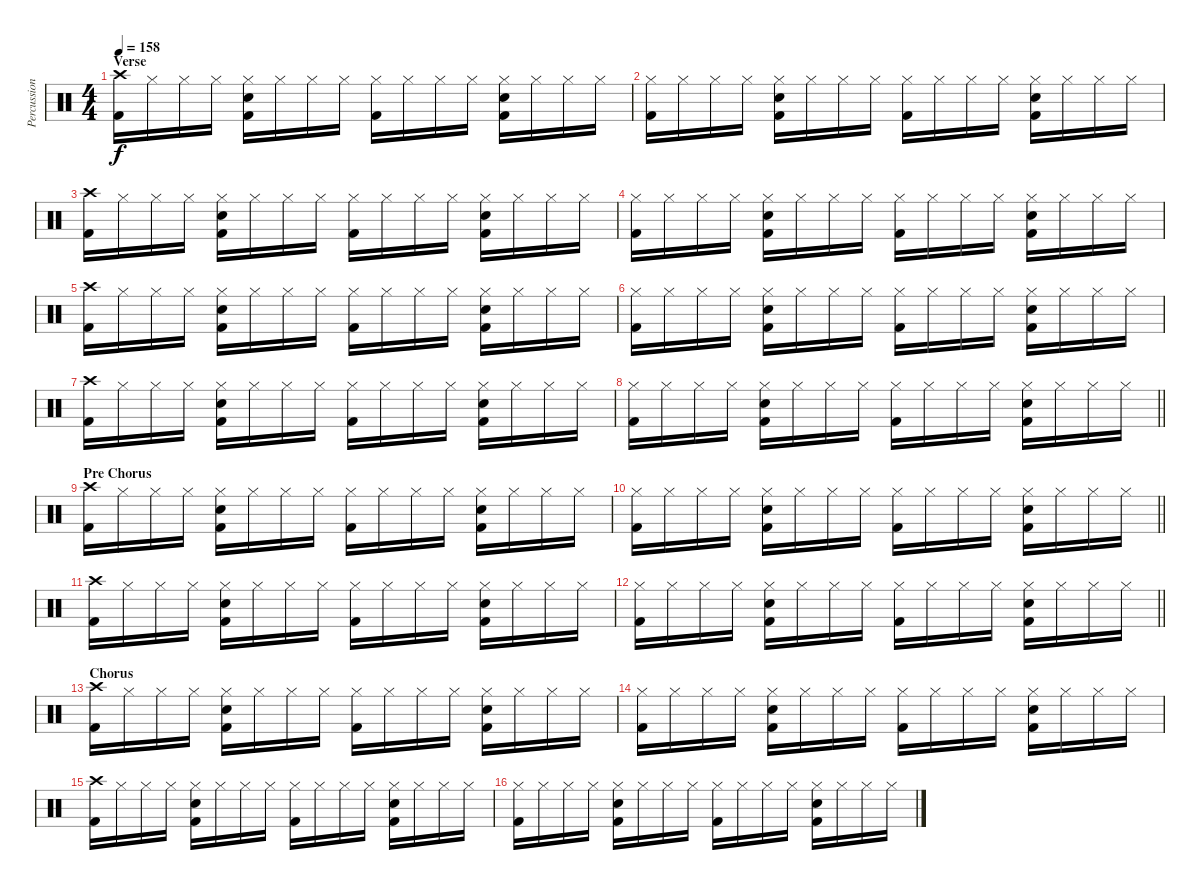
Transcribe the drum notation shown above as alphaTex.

\track ("Percussion" "Percussion") {instrument percussion}
\staff {score}
\articulation defaults
\ts (4 4)
\section ("" "Verse")
\tempo 158
\clef neutral
\ks c
("Crash high (hit)" "Kick (hit) 2").16{dy f} "Hi-Hat (closed)".16 "Hi-Hat (closed)".16 "Hi-Hat (closed)".16 ("Hi-Hat (closed)" "Electric Snare (hit)" "Kick (hit) 2").16 "Hi-Hat (closed)".16 "Hi-Hat (closed)".16 "Hi-Hat (closed)".16 ("Hi-Hat (closed)" "Kick (hit) 2").16 "Hi-Hat (closed)".16 "Hi-Hat (closed)".16 "Hi-Hat (closed)".16 ("Hi-Hat (closed)" "Electric Snare (hit)" "Kick (hit) 2").16 "Hi-Hat (closed)".16 "Hi-Hat (closed)".16 "Hi-Hat (closed)".16 |
("Hi-Hat (closed)" "Kick (hit) 2").16 "Hi-Hat (closed)".16 "Hi-Hat (closed)".16 "Hi-Hat (closed)".16 ("Hi-Hat (closed)" "Electric Snare (hit)" "Kick (hit) 2").16 "Hi-Hat (closed)".16 "Hi-Hat (closed)".16 "Hi-Hat (closed)".16 ("Hi-Hat (closed)" "Kick (hit) 2").16 "Hi-Hat (closed)".16 "Hi-Hat (closed)".16 "Hi-Hat (closed)".16 ("Hi-Hat (closed)" "Electric Snare (hit)" "Kick (hit) 2").16 "Hi-Hat (closed)".16 "Hi-Hat (closed)".16 "Hi-Hat (closed)".16 |
("Crash high (hit)" "Kick (hit) 2").16 "Hi-Hat (closed)".16 "Hi-Hat (closed)".16 "Hi-Hat (closed)".16 ("Hi-Hat (closed)" "Electric Snare (hit)" "Kick (hit) 2").16 "Hi-Hat (closed)".16 "Hi-Hat (closed)".16 "Hi-Hat (closed)".16 ("Hi-Hat (closed)" "Kick (hit) 2").16 "Hi-Hat (closed)".16 "Hi-Hat (closed)".16 "Hi-Hat (closed)".16 ("Hi-Hat (closed)" "Electric Snare (hit)" "Kick (hit) 2").16 "Hi-Hat (closed)".16 "Hi-Hat (closed)".16 "Hi-Hat (closed)".16 |
("Hi-Hat (closed)" "Kick (hit) 2").16 "Hi-Hat (closed)".16 "Hi-Hat (closed)".16 "Hi-Hat (closed)".16 ("Hi-Hat (closed)" "Electric Snare (hit)" "Kick (hit) 2").16 "Hi-Hat (closed)".16 "Hi-Hat (closed)".16 "Hi-Hat (closed)".16 ("Hi-Hat (closed)" "Kick (hit) 2").16 "Hi-Hat (closed)".16 "Hi-Hat (closed)".16 "Hi-Hat (closed)".16 ("Hi-Hat (closed)" "Electric Snare (hit)" "Kick (hit) 2").16 "Hi-Hat (closed)".16 "Hi-Hat (closed)".16 "Hi-Hat (closed)".16 |
("Crash high (hit)" "Kick (hit) 2").16 "Hi-Hat (closed)".16 "Hi-Hat (closed)".16 "Hi-Hat (closed)".16 ("Hi-Hat (closed)" "Electric Snare (hit)" "Kick (hit) 2").16 "Hi-Hat (closed)".16 "Hi-Hat (closed)".16 "Hi-Hat (closed)".16 ("Hi-Hat (closed)" "Kick (hit) 2").16 "Hi-Hat (closed)".16 "Hi-Hat (closed)".16 "Hi-Hat (closed)".16 ("Hi-Hat (closed)" "Electric Snare (hit)" "Kick (hit) 2").16 "Hi-Hat (closed)".16 "Hi-Hat (closed)".16 "Hi-Hat (closed)".16 |
("Hi-Hat (closed)" "Kick (hit) 2").16 "Hi-Hat (closed)".16 "Hi-Hat (closed)".16 "Hi-Hat (closed)".16 ("Hi-Hat (closed)" "Electric Snare (hit)" "Kick (hit) 2").16 "Hi-Hat (closed)".16 "Hi-Hat (closed)".16 "Hi-Hat (closed)".16 ("Hi-Hat (closed)" "Kick (hit) 2").16 "Hi-Hat (closed)".16 "Hi-Hat (closed)".16 "Hi-Hat (closed)".16 ("Hi-Hat (closed)" "Electric Snare (hit)" "Kick (hit) 2").16 "Hi-Hat (closed)".16 "Hi-Hat (closed)".16 "Hi-Hat (closed)".16 |
("Crash high (hit)" "Kick (hit) 2").16 "Hi-Hat (closed)".16 "Hi-Hat (closed)".16 "Hi-Hat (closed)".16 ("Hi-Hat (closed)" "Electric Snare (hit)" "Kick (hit) 2").16 "Hi-Hat (closed)".16 "Hi-Hat (closed)".16 "Hi-Hat (closed)".16 ("Hi-Hat (closed)" "Kick (hit) 2").16 "Hi-Hat (closed)".16 "Hi-Hat (closed)".16 "Hi-Hat (closed)".16 ("Hi-Hat (closed)" "Electric Snare (hit)" "Kick (hit) 2").16 "Hi-Hat (closed)".16 "Hi-Hat (closed)".16 "Hi-Hat (closed)".16 |
\barLineRight lightlight
("Hi-Hat (closed)" "Kick (hit) 2").16 "Hi-Hat (closed)".16 "Hi-Hat (closed)".16 "Hi-Hat (closed)".16 ("Hi-Hat (closed)" "Electric Snare (hit)" "Kick (hit) 2").16 "Hi-Hat (closed)".16 "Hi-Hat (closed)".16 "Hi-Hat (closed)".16 ("Hi-Hat (closed)" "Kick (hit) 2").16 "Hi-Hat (closed)".16 "Hi-Hat (closed)".16 "Hi-Hat (closed)".16 ("Hi-Hat (closed)" "Electric Snare (hit)" "Kick (hit) 2").16 "Hi-Hat (closed)".16 "Hi-Hat (closed)".16 "Hi-Hat (closed)".16 |
\section ("" "Pre Chorus")
("Crash high (hit)" "Kick (hit) 2").16 "Hi-Hat (closed)".16 "Hi-Hat (closed)".16 "Hi-Hat (closed)".16 ("Hi-Hat (closed)" "Electric Snare (hit)" "Kick (hit) 2").16 "Hi-Hat (closed)".16 "Hi-Hat (closed)".16 "Hi-Hat (closed)".16 ("Hi-Hat (closed)" "Kick (hit) 2").16 "Hi-Hat (closed)".16 "Hi-Hat (closed)".16 "Hi-Hat (closed)".16 ("Hi-Hat (closed)" "Electric Snare (hit)" "Kick (hit) 2").16 "Hi-Hat (closed)".16 "Hi-Hat (closed)".16 "Hi-Hat (closed)".16 |
\barLineRight lightlight
("Hi-Hat (closed)" "Kick (hit) 2").16 "Hi-Hat (closed)".16 "Hi-Hat (closed)".16 "Hi-Hat (closed)".16 ("Hi-Hat (closed)" "Electric Snare (hit)" "Kick (hit) 2").16 "Hi-Hat (closed)".16 "Hi-Hat (closed)".16 "Hi-Hat (closed)".16 ("Hi-Hat (closed)" "Kick (hit) 2").16 "Hi-Hat (closed)".16 "Hi-Hat (closed)".16 "Hi-Hat (closed)".16 ("Hi-Hat (closed)" "Electric Snare (hit)" "Kick (hit) 2").16 "Hi-Hat (closed)".16 "Hi-Hat (closed)".16 "Hi-Hat (closed)".16 |
("Crash high (hit)" "Kick (hit) 2").16 "Hi-Hat (closed)".16 "Hi-Hat (closed)".16 "Hi-Hat (closed)".16 ("Hi-Hat (closed)" "Electric Snare (hit)" "Kick (hit) 2").16 "Hi-Hat (closed)".16 "Hi-Hat (closed)".16 "Hi-Hat (closed)".16 ("Hi-Hat (closed)" "Kick (hit) 2").16 "Hi-Hat (closed)".16 "Hi-Hat (closed)".16 "Hi-Hat (closed)".16 ("Hi-Hat (closed)" "Electric Snare (hit)" "Kick (hit) 2").16 "Hi-Hat (closed)".16 "Hi-Hat (closed)".16 "Hi-Hat (closed)".16 |
\barLineRight lightlight
("Hi-Hat (closed)" "Kick (hit) 2").16 "Hi-Hat (closed)".16 "Hi-Hat (closed)".16 "Hi-Hat (closed)".16 ("Hi-Hat (closed)" "Electric Snare (hit)" "Kick (hit) 2").16 "Hi-Hat (closed)".16 "Hi-Hat (closed)".16 "Hi-Hat (closed)".16 ("Hi-Hat (closed)" "Kick (hit) 2").16 "Hi-Hat (closed)".16 "Hi-Hat (closed)".16 "Hi-Hat (closed)".16 ("Hi-Hat (closed)" "Electric Snare (hit)" "Kick (hit) 2").16 "Hi-Hat (closed)".16 "Hi-Hat (closed)".16 "Hi-Hat (closed)".16 |
\section ("" "Chorus")
("Crash high (hit)" "Kick (hit) 2").16 "Hi-Hat (closed)".16 "Hi-Hat (closed)".16 "Hi-Hat (closed)".16 ("Hi-Hat (closed)" "Electric Snare (hit)" "Kick (hit) 2").16 "Hi-Hat (closed)".16 "Hi-Hat (closed)".16 "Hi-Hat (closed)".16 ("Hi-Hat (closed)" "Kick (hit) 2").16 "Hi-Hat (closed)".16 "Hi-Hat (closed)".16 "Hi-Hat (closed)".16 ("Hi-Hat (closed)" "Electric Snare (hit)" "Kick (hit) 2").16 "Hi-Hat (closed)".16 "Hi-Hat (closed)".16 "Hi-Hat (closed)".16 |
("Hi-Hat (closed)" "Kick (hit) 2").16 "Hi-Hat (closed)".16 "Hi-Hat (closed)".16 "Hi-Hat (closed)".16 ("Hi-Hat (closed)" "Electric Snare (hit)" "Kick (hit) 2").16 "Hi-Hat (closed)".16 "Hi-Hat (closed)".16 "Hi-Hat (closed)".16 ("Hi-Hat (closed)" "Kick (hit) 2").16 "Hi-Hat (closed)".16 "Hi-Hat (closed)".16 "Hi-Hat (closed)".16 ("Hi-Hat (closed)" "Electric Snare (hit)" "Kick (hit) 2").16 "Hi-Hat (closed)".16 "Hi-Hat (closed)".16 "Hi-Hat (closed)".16 |
("Crash high (hit)" "Kick (hit) 2").16 "Hi-Hat (closed)".16 "Hi-Hat (closed)".16 "Hi-Hat (closed)".16 ("Hi-Hat (closed)" "Electric Snare (hit)" "Kick (hit) 2").16 "Hi-Hat (closed)".16 "Hi-Hat (closed)".16 "Hi-Hat (closed)".16 ("Hi-Hat (closed)" "Kick (hit) 2").16 "Hi-Hat (closed)".16 "Hi-Hat (closed)".16 "Hi-Hat (closed)".16 ("Hi-Hat (closed)" "Electric Snare (hit)" "Kick (hit) 2").16 "Hi-Hat (closed)".16 "Hi-Hat (closed)".16 "Hi-Hat (closed)".16 |
("Hi-Hat (closed)" "Kick (hit) 2").16 "Hi-Hat (closed)".16 "Hi-Hat (closed)".16 "Hi-Hat (closed)".16 ("Hi-Hat (closed)" "Electric Snare (hit)" "Kick (hit) 2").16 "Hi-Hat (closed)".16 "Hi-Hat (closed)".16 "Hi-Hat (closed)".16 ("Hi-Hat (closed)" "Kick (hit) 2").16 "Hi-Hat (closed)".16 "Hi-Hat (closed)".16 "Hi-Hat (closed)".16 ("Hi-Hat (closed)" "Electric Snare (hit)" "Kick (hit) 2").16 "Hi-Hat (closed)".16 "Hi-Hat (closed)".16 "Hi-Hat (closed)".16
